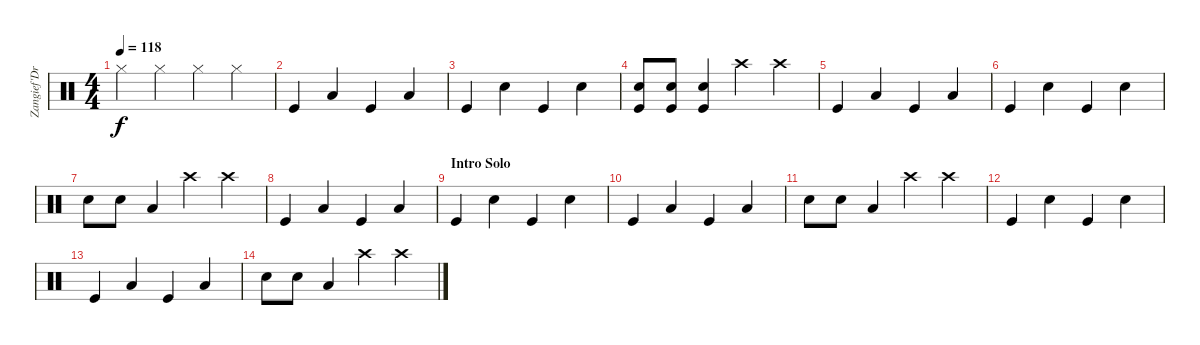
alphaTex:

\track ("Zangief'Drums" "Zangief'Dr") {instrument percussion}
\staff {score}
\articulation defaults
\ts (4 4)
\tempo 118
\clef neutral
\ks c "Hi-Hat (closed)".4{dy f} "Hi-Hat (closed)".4 "Hi-Hat (closed)".4 "Hi-Hat (closed)".4
|
"Kick (hit)".4 "Low Tom (hit)".4 "Kick (hit)".4 "Low Tom (hit)".4 |
"Kick (hit)".4 "Electric Snare (hit)".4 "Kick (hit)".4 "Electric Snare (hit)".4 |
("Electric Snare (hit)" "Kick (hit)").8 ("Electric Snare (hit)" "Kick (hit)").8 ("Electric Snare (hit)" "Kick (hit)").4 "Crash high (hit)".4 "Crash high (hit)".4 |
"Kick (hit)".4 "Low Tom (hit)".4 "Kick (hit)".4 "Low Tom (hit)".4 |
"Kick (hit)".4 "Electric Snare (hit)".4 "Kick (hit)".4 "Electric Snare (hit)".4 |
"Electric Snare (hit)".8 "Electric Snare (hit)".8 "Low Tom (hit)".4 "Crash high (hit)".4 "Crash high (hit)".4 |
"Kick (hit)".4 "Low Tom (hit)".4 "Kick (hit)".4 "Low Tom (hit)".4 |
\section ("" "Intro Solo")
"Kick (hit)".4 "Electric Snare (hit)".4 "Kick (hit)".4 "Electric Snare (hit)".4 |
"Kick (hit)".4 "Low Tom (hit)".4 "Kick (hit)".4 "Low Tom (hit)".4 |
"Electric Snare (hit)".8 "Electric Snare (hit)".8 "Low Tom (hit)".4 "Crash high (hit)".4 "Crash high (hit)".4 |
"Kick (hit)".4 "Electric Snare (hit)".4 "Kick (hit)".4 "Electric Snare (hit)".4 |
"Kick (hit)".4 "Low Tom (hit)".4 "Kick (hit)".4 "Low Tom (hit)".4 |
"Electric Snare (hit)".8 "Electric Snare (hit)".8 "Low Tom (hit)".4 "Crash high (hit)".4 "Crash high (hit)".4
